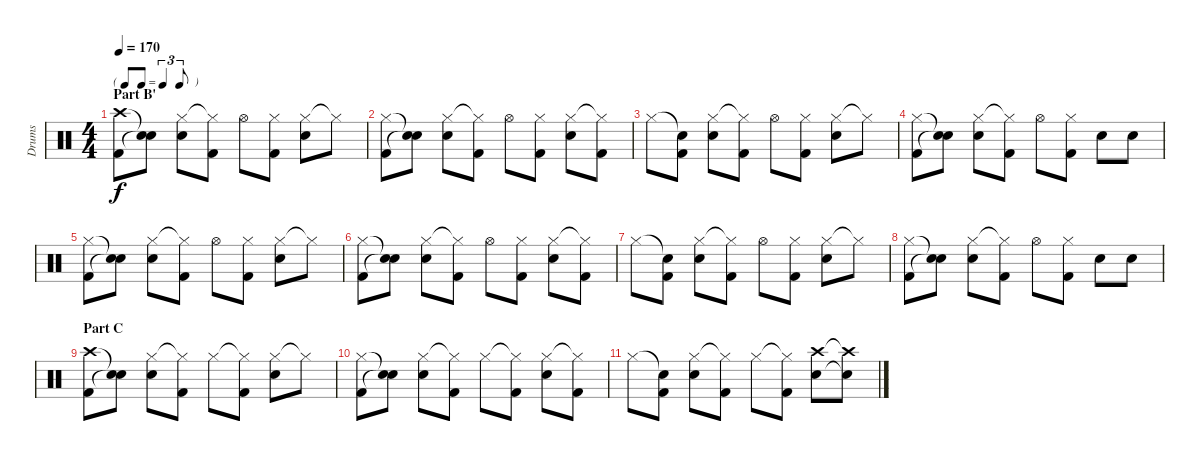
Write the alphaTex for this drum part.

\track ("Drums" "Drums") {instrument percussion}
\staff {score}
\articulation defaults
\ts (4 4)
\tf triplet8th
\section ("" "Part B'")
\tempo 170
\clef neutral
\ks c
("Crash high (hit)" "Kick (hit) 2").8{dy f} ("Snare (hit)"{t} "Snare (hit)"{t}).8 ("Hi-Hat (closed)" "Electric Snare (hit)").8 ("Hi-Hat (closed)"{t} "Kick (hit) 2").8 "Hi-Hat (open)".8 ("Hi-Hat (closed)" "Kick (hit) 2").8 ("Hi-Hat (closed)" "Electric Snare (hit)").8 "Hi-Hat (closed)"{t}.8 |
("Hi-Hat (closed)" "Kick (hit) 2").8 ("Snare (hit)"{t} "Snare (hit)"{t}).8 ("Hi-Hat (closed)" "Electric Snare (hit)").8 ("Hi-Hat (closed)"{t} "Kick (hit) 2").8 "Hi-Hat (open)".8 ("Hi-Hat (closed)" "Kick (hit) 2").8 ("Hi-Hat (closed)" "Electric Snare (hit)").8 ("Hi-Hat (closed)"{t} "Kick (hit) 2").8 |
"Hi-Hat (closed)".8 ("Snare (hit)"{t} "Kick (hit) 2").8 ("Hi-Hat (closed)" "Electric Snare (hit)").8 ("Hi-Hat (closed)"{t} "Kick (hit) 2").8 "Hi-Hat (open)".8 ("Hi-Hat (closed)" "Kick (hit) 2").8 ("Hi-Hat (closed)" "Electric Snare (hit)").8 "Hi-Hat (closed)"{t}.8 |
("Hi-Hat (closed)" "Kick (hit) 2").8 ("Snare (hit)"{t} "Snare (hit)"{t}).8 ("Hi-Hat (closed)" "Electric Snare (hit)").8 ("Hi-Hat (closed)"{t} "Kick (hit) 2").8 "Hi-Hat (open)".8 ("Hi-Hat (closed)" "Kick (hit) 2").8 "Electric Snare (hit)".8 "Electric Snare (hit)".8 |
("Hi-Hat (closed)" "Kick (hit) 2").8 ("Snare (hit)"{t} "Snare (hit)"{t}).8 ("Hi-Hat (closed)" "Electric Snare (hit)").8 ("Hi-Hat (closed)"{t} "Kick (hit) 2").8 "Hi-Hat (open)".8 ("Hi-Hat (closed)" "Kick (hit) 2").8 ("Hi-Hat (closed)" "Electric Snare (hit)").8 "Hi-Hat (closed)"{t}.8 |
("Hi-Hat (closed)" "Kick (hit) 2").8 ("Snare (hit)"{t} "Snare (hit)"{t}).8 ("Hi-Hat (closed)" "Electric Snare (hit)").8 ("Hi-Hat (closed)"{t} "Kick (hit) 2").8 "Hi-Hat (open)".8 ("Hi-Hat (closed)" "Kick (hit) 2").8 ("Hi-Hat (closed)" "Electric Snare (hit)").8 ("Hi-Hat (closed)"{t} "Kick (hit) 2").8 |
"Hi-Hat (closed)".8 ("Snare (hit)"{t} "Kick (hit) 2").8 ("Hi-Hat (closed)" "Electric Snare (hit)").8 ("Hi-Hat (closed)"{t} "Kick (hit) 2").8 "Hi-Hat (open)".8 ("Hi-Hat (closed)" "Kick (hit) 2").8 ("Hi-Hat (closed)" "Electric Snare (hit)").8 "Hi-Hat (closed)"{t}.8 |
("Hi-Hat (closed)" "Kick (hit) 2").8 ("Snare (hit)"{t} "Snare (hit)"{t}).8 ("Hi-Hat (closed)" "Electric Snare (hit)").8 ("Hi-Hat (closed)"{t} "Kick (hit) 2").8 "Hi-Hat (open)".8 ("Hi-Hat (closed)" "Kick (hit) 2").8 "Electric Snare (hit)".8 "Electric Snare (hit)".8 |
\section ("" "Part C")
("Crash high (hit)" "Kick (hit) 2").8 ("Snare (hit)"{t} "Snare (hit)"{t}).8 ("Hi-Hat (closed)" "Electric Snare (hit)").8 ("Hi-Hat (closed)"{t} "Kick (hit) 2").8 "Hi-Hat (closed)".8 ("Hi-Hat (closed)"{t} "Kick (hit) 2").8 ("Hi-Hat (closed)" "Electric Snare (hit)").8 "Hi-Hat (closed)"{t}.8 |
("Hi-Hat (closed)" "Kick (hit) 2").8 ("Snare (hit)"{t} "Snare (hit)"{t}).8 ("Hi-Hat (closed)" "Electric Snare (hit)").8 ("Hi-Hat (closed)"{t} "Kick (hit) 2").8 "Hi-Hat (closed)".8 ("Hi-Hat (closed)"{t} "Kick (hit) 2").8 ("Hi-Hat (closed)" "Electric Snare (hit)").8 ("Hi-Hat (closed)"{t} "Kick (hit) 2").8 |
"Hi-Hat (closed)".8 ("Snare (hit)"{t} "Kick (hit) 2").8 ("Hi-Hat (closed)" "Electric Snare (hit)").8 ("Hi-Hat (closed)"{t} "Kick (hit) 2").8 "Hi-Hat (closed)".8 ("Hi-Hat (closed)"{t} "Kick (hit) 2").8 ("Crash high (hit)" "Electric Snare (hit)").8 ("Crash high (hit)"{t} "Snare (hit)"{t}).8
